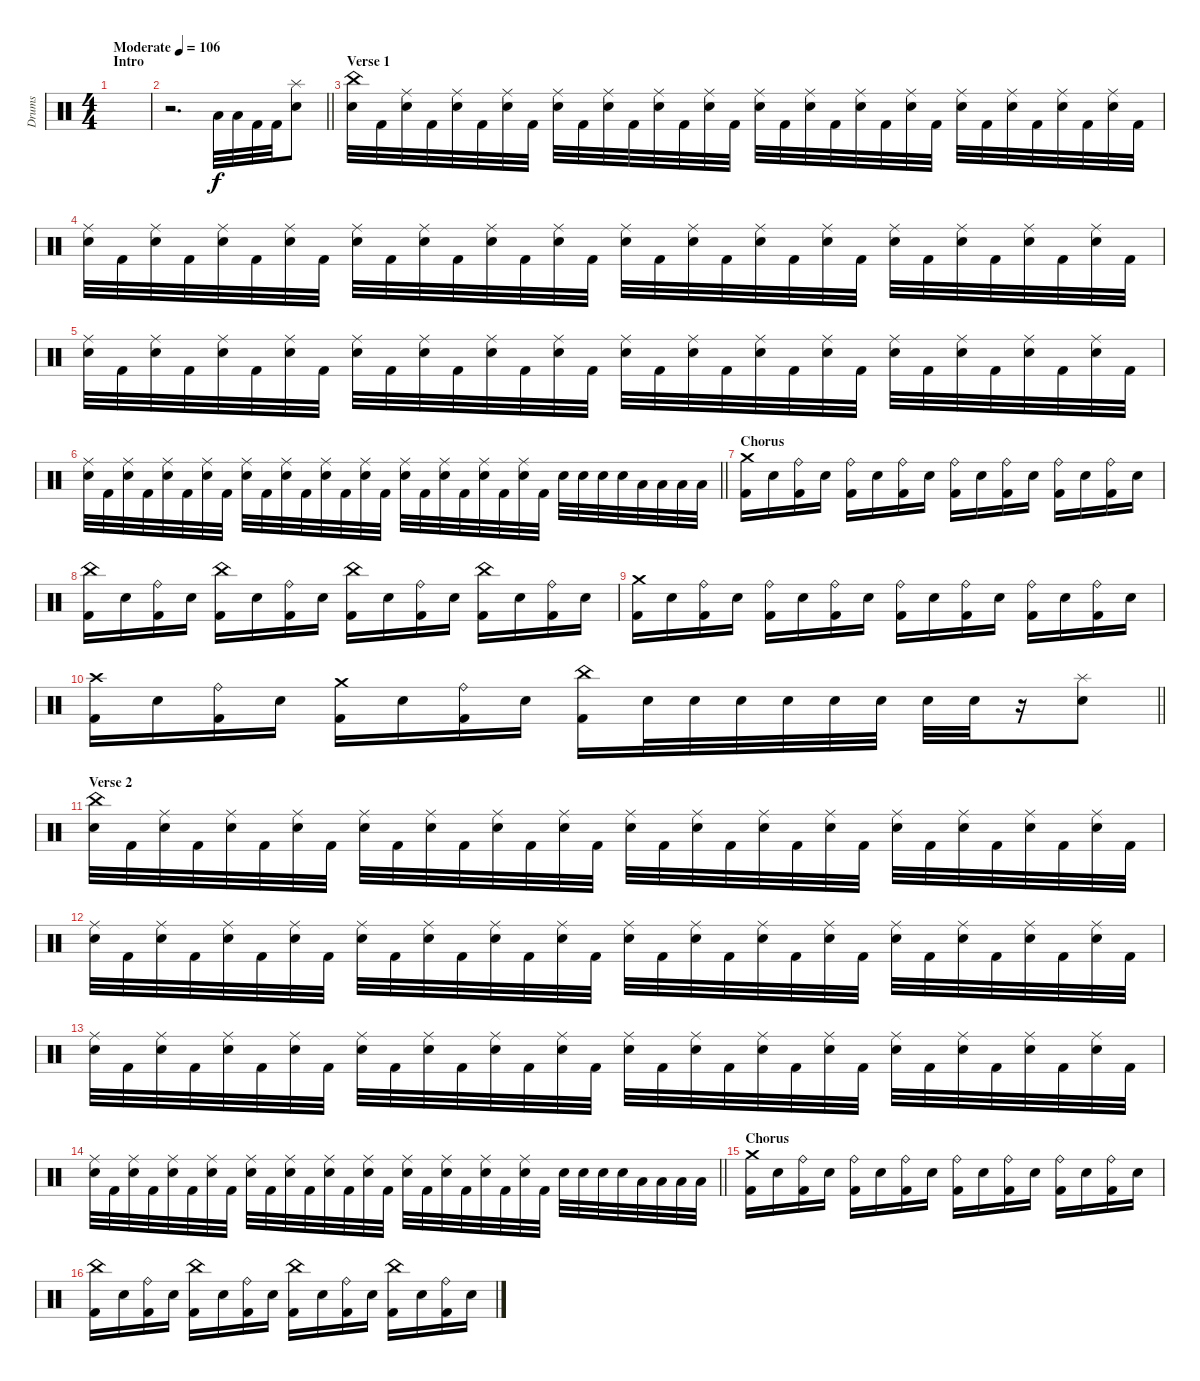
\track ("Drums" "Drums") {instrument percussion}
\staff {score}
\articulation defaults
\ts (4 4)
\section ("" "Intro")
\tempo (106 "Moderate")
\clef neutral
\ks c
|
\barLineRight lightlight
r.2{d} "Low Floor Tom (hit)".32 "Low Floor Tom (hit)".32 "Kick (hit) 2".32 "Kick (hit) 2".32 ("Splash (hit)" "Electric Snare (hit)").8 |
\section ("" "Verse 1")
("China (hit)" "Electric Snare (hit)").32 "Kick (hit) 2".32 ("Ride (middle)" "Electric Snare (hit)").32 "Kick (hit) 2".32 ("Ride (middle)" "Electric Snare (hit)").32 "Kick (hit) 2".32 ("Ride (middle)" "Electric Snare (hit)").32 "Kick (hit) 2".32 ("Ride (middle)" "Electric Snare (hit)").32 "Kick (hit) 2".32 ("Ride (middle)" "Electric Snare (hit)").32 "Kick (hit) 2".32 ("Ride (middle)" "Electric Snare (hit)").32 "Kick (hit) 2".32 ("Ride (middle)" "Electric Snare (hit)").32 "Kick (hit) 2".32 ("Ride (middle)" "Electric Snare (hit)").32 "Kick (hit) 2".32 ("Ride (middle)" "Electric Snare (hit)").32 "Kick (hit) 2".32 ("Ride (middle)" "Electric Snare (hit)").32 "Kick (hit) 2".32 ("Ride (middle)" "Electric Snare (hit)").32 "Kick (hit) 2".32 ("Ride (middle)" "Electric Snare (hit)").32 "Kick (hit) 2".32 ("Ride (middle)" "Electric Snare (hit)").32 "Kick (hit) 2".32 ("Ride (middle)" "Electric Snare (hit)").32 "Kick (hit) 2".32 ("Ride (middle)" "Electric Snare (hit)").32 "Kick (hit) 2".32 |
("Ride (middle)" "Electric Snare (hit)").32 "Kick (hit) 2".32 ("Ride (middle)" "Electric Snare (hit)").32 "Kick (hit) 2".32 ("Ride (middle)" "Electric Snare (hit)").32 "Kick (hit) 2".32 ("Ride (middle)" "Electric Snare (hit)").32 "Kick (hit) 2".32 ("Ride (middle)" "Electric Snare (hit)").32 "Kick (hit) 2".32 ("Ride (middle)" "Electric Snare (hit)").32 "Kick (hit) 2".32 ("Ride (middle)" "Electric Snare (hit)").32 "Kick (hit) 2".32 ("Ride (middle)" "Electric Snare (hit)").32 "Kick (hit) 2".32 ("Ride (middle)" "Electric Snare (hit)").32 "Kick (hit) 2".32 ("Ride (middle)" "Electric Snare (hit)").32 "Kick (hit) 2".32 ("Ride (middle)" "Electric Snare (hit)").32 "Kick (hit) 2".32 ("Ride (middle)" "Electric Snare (hit)").32 "Kick (hit) 2".32 ("Ride (middle)" "Electric Snare (hit)").32 "Kick (hit) 2".32 ("Ride (middle)" "Electric Snare (hit)").32 "Kick (hit) 2".32 ("Ride (middle)" "Electric Snare (hit)").32 "Kick (hit) 2".32 ("Ride (middle)" "Electric Snare (hit)").32 "Kick (hit) 2".32 |
("Ride (middle)" "Electric Snare (hit)").32 "Kick (hit) 2".32 ("Ride (middle)" "Electric Snare (hit)").32 "Kick (hit) 2".32 ("Ride (middle)" "Electric Snare (hit)").32 "Kick (hit) 2".32 ("Ride (middle)" "Electric Snare (hit)").32 "Kick (hit) 2".32 ("Ride (middle)" "Electric Snare (hit)").32 "Kick (hit) 2".32 ("Ride (middle)" "Electric Snare (hit)").32 "Kick (hit) 2".32 ("Ride (middle)" "Electric Snare (hit)").32 "Kick (hit) 2".32 ("Ride (middle)" "Electric Snare (hit)").32 "Kick (hit) 2".32 ("Ride (middle)" "Electric Snare (hit)").32 "Kick (hit) 2".32 ("Ride (middle)" "Electric Snare (hit)").32 "Kick (hit) 2".32 ("Ride (middle)" "Electric Snare (hit)").32 "Kick (hit) 2".32 ("Ride (middle)" "Electric Snare (hit)").32 "Kick (hit) 2".32 ("Ride (middle)" "Electric Snare (hit)").32 "Kick (hit) 2".32 ("Ride (middle)" "Electric Snare (hit)").32 "Kick (hit) 2".32 ("Ride (middle)" "Electric Snare (hit)").32 "Kick (hit) 2".32 ("Ride (middle)" "Electric Snare (hit)").32 "Kick (hit) 2".32 |
\barLineRight lightlight
("Ride (middle)" "Electric Snare (hit)").32 "Kick (hit) 2".32 ("Ride (middle)" "Electric Snare (hit)").32 "Kick (hit) 2".32 ("Ride (middle)" "Electric Snare (hit)").32 "Kick (hit) 2".32 ("Ride (middle)" "Electric Snare (hit)").32 "Kick (hit) 2".32 ("Ride (middle)" "Electric Snare (hit)").32 "Kick (hit) 2".32 ("Ride (middle)" "Electric Snare (hit)").32 "Kick (hit) 2".32 ("Ride (middle)" "Electric Snare (hit)").32 "Kick (hit) 2".32 ("Ride (middle)" "Electric Snare (hit)").32 "Kick (hit) 2".32 ("Ride (middle)" "Electric Snare (hit)").32 "Kick (hit) 2".32 ("Ride (middle)" "Electric Snare (hit)").32 "Kick (hit) 2".32 ("Ride (middle)" "Electric Snare (hit)").32 "Kick (hit) 2".32 ("Ride (middle)" "Electric Snare (hit)").32 "Kick (hit) 2".32 "Electric Snare (hit)".32 "Electric Snare (hit)".32 "Electric Snare (hit)".32 "Electric Snare (hit)".32 "Low Tom (hit)".32 "Low Tom (hit)".32 "Low Floor Tom (hit)".32 "Low Floor Tom (hit)".32 |
\section ("" "Chorus")
("Crash medium (hit)" "Kick (hit) 2").16 "Electric Snare (hit)".16 ("Ride (bell)" "Kick (hit) 2").16 "Electric Snare (hit)".16 ("Ride (bell)" "Kick (hit) 2").16 "Electric Snare (hit)".16 ("Ride (bell)" "Kick (hit) 2").16 "Electric Snare (hit)".16 ("Ride (bell)" "Kick (hit) 2").16 "Electric Snare (hit)".16 ("Ride (bell)" "Kick (hit) 2").16 "Electric Snare (hit)".16 ("Ride (bell)" "Kick (hit) 2").16 "Electric Snare (hit)".16 ("Ride (bell)" "Kick (hit) 2").16 "Electric Snare (hit)".16 |
("China (hit)" "Kick (hit) 2").16 "Electric Snare (hit)".16 ("Ride (bell)" "Kick (hit) 2").16 "Electric Snare (hit)".16 ("China (hit)" "Kick (hit) 2").16 "Electric Snare (hit)".16 ("Ride (bell)" "Kick (hit) 2").16 "Electric Snare (hit)".16 ("China (hit)" "Kick (hit) 2").16 "Electric Snare (hit)".16 ("Ride (bell)" "Kick (hit) 2").16 "Electric Snare (hit)".16 ("China (hit)" "Kick (hit) 2").16 "Electric Snare (hit)".16 ("Ride (bell)" "Kick (hit) 2").16 "Electric Snare (hit)".16 |
("Crash medium (hit)" "Kick (hit) 2").16 "Electric Snare (hit)".16 ("Ride (bell)" "Kick (hit) 2").16 "Electric Snare (hit)".16 ("Ride (bell)" "Kick (hit) 2").16 "Electric Snare (hit)".16 ("Ride (bell)" "Kick (hit) 2").16 "Electric Snare (hit)".16 ("Ride (bell)" "Kick (hit) 2").16 "Electric Snare (hit)".16 ("Ride (bell)" "Kick (hit) 2").16 "Electric Snare (hit)".16 ("Ride (bell)" "Kick (hit) 2").16 "Electric Snare (hit)".16 ("Ride (bell)" "Kick (hit) 2").16 "Electric Snare (hit)".16 |
\barLineRight lightlight
("Crash high (hit)" "Kick (hit) 2").16 "Electric Snare (hit)".16 ("Ride (bell)" "Kick (hit) 2").16 "Electric Snare (hit)".16 ("Crash medium (hit)" "Kick (hit) 2").16 "Electric Snare (hit)".16 ("Ride (bell)" "Kick (hit) 2").16 "Electric Snare (hit)".16 ("China (hit)" "Kick (hit) 2").16 "Electric Snare (hit)".32 "Electric Snare (hit)".32 "Electric Snare (hit)".32 "Electric Snare (hit)".32 "Electric Snare (hit)".32 "Electric Snare (hit)".32 "Electric Snare (hit)".32 "Electric Snare (hit)".32 r.16 ("Splash (hit)" "Electric Snare (hit)").8 |
\section ("" "Verse 2")
("China (hit)" "Electric Snare (hit)").32 "Kick (hit) 2".32 ("Ride (middle)" "Electric Snare (hit)").32 "Kick (hit) 2".32 ("Ride (middle)" "Electric Snare (hit)").32 "Kick (hit) 2".32 ("Ride (middle)" "Electric Snare (hit)").32 "Kick (hit) 2".32 ("Ride (middle)" "Electric Snare (hit)").32 "Kick (hit) 2".32 ("Ride (middle)" "Electric Snare (hit)").32 "Kick (hit) 2".32 ("Ride (middle)" "Electric Snare (hit)").32 "Kick (hit) 2".32 ("Ride (middle)" "Electric Snare (hit)").32 "Kick (hit) 2".32 ("Ride (middle)" "Electric Snare (hit)").32 "Kick (hit) 2".32 ("Ride (middle)" "Electric Snare (hit)").32 "Kick (hit) 2".32 ("Ride (middle)" "Electric Snare (hit)").32 "Kick (hit) 2".32 ("Ride (middle)" "Electric Snare (hit)").32 "Kick (hit) 2".32 ("Ride (middle)" "Electric Snare (hit)").32 "Kick (hit) 2".32 ("Ride (middle)" "Electric Snare (hit)").32 "Kick (hit) 2".32 ("Ride (middle)" "Electric Snare (hit)").32 "Kick (hit) 2".32 ("Ride (middle)" "Electric Snare (hit)").32 "Kick (hit) 2".32 |
("Ride (middle)" "Electric Snare (hit)").32 "Kick (hit) 2".32 ("Ride (middle)" "Electric Snare (hit)").32 "Kick (hit) 2".32 ("Ride (middle)" "Electric Snare (hit)").32 "Kick (hit) 2".32 ("Ride (middle)" "Electric Snare (hit)").32 "Kick (hit) 2".32 ("Ride (middle)" "Electric Snare (hit)").32 "Kick (hit) 2".32 ("Ride (middle)" "Electric Snare (hit)").32 "Kick (hit) 2".32 ("Ride (middle)" "Electric Snare (hit)").32 "Kick (hit) 2".32 ("Ride (middle)" "Electric Snare (hit)").32 "Kick (hit) 2".32 ("Ride (middle)" "Electric Snare (hit)").32 "Kick (hit) 2".32 ("Ride (middle)" "Electric Snare (hit)").32 "Kick (hit) 2".32 ("Ride (middle)" "Electric Snare (hit)").32 "Kick (hit) 2".32 ("Ride (middle)" "Electric Snare (hit)").32 "Kick (hit) 2".32 ("Ride (middle)" "Electric Snare (hit)").32 "Kick (hit) 2".32 ("Ride (middle)" "Electric Snare (hit)").32 "Kick (hit) 2".32 ("Ride (middle)" "Electric Snare (hit)").32 "Kick (hit) 2".32 ("Ride (middle)" "Electric Snare (hit)").32 "Kick (hit) 2".32 |
("Ride (middle)" "Electric Snare (hit)").32 "Kick (hit) 2".32 ("Ride (middle)" "Electric Snare (hit)").32 "Kick (hit) 2".32 ("Ride (middle)" "Electric Snare (hit)").32 "Kick (hit) 2".32 ("Ride (middle)" "Electric Snare (hit)").32 "Kick (hit) 2".32 ("Ride (middle)" "Electric Snare (hit)").32 "Kick (hit) 2".32 ("Ride (middle)" "Electric Snare (hit)").32 "Kick (hit) 2".32 ("Ride (middle)" "Electric Snare (hit)").32 "Kick (hit) 2".32 ("Ride (middle)" "Electric Snare (hit)").32 "Kick (hit) 2".32 ("Ride (middle)" "Electric Snare (hit)").32 "Kick (hit) 2".32 ("Ride (middle)" "Electric Snare (hit)").32 "Kick (hit) 2".32 ("Ride (middle)" "Electric Snare (hit)").32 "Kick (hit) 2".32 ("Ride (middle)" "Electric Snare (hit)").32 "Kick (hit) 2".32 ("Ride (middle)" "Electric Snare (hit)").32 "Kick (hit) 2".32 ("Ride (middle)" "Electric Snare (hit)").32 "Kick (hit) 2".32 ("Ride (middle)" "Electric Snare (hit)").32 "Kick (hit) 2".32 ("Ride (middle)" "Electric Snare (hit)").32 "Kick (hit) 2".32 |
\barLineRight lightlight
("Ride (middle)" "Electric Snare (hit)").32 "Kick (hit) 2".32 ("Ride (middle)" "Electric Snare (hit)").32 "Kick (hit) 2".32 ("Ride (middle)" "Electric Snare (hit)").32 "Kick (hit) 2".32 ("Ride (middle)" "Electric Snare (hit)").32 "Kick (hit) 2".32 ("Ride (middle)" "Electric Snare (hit)").32 "Kick (hit) 2".32 ("Ride (middle)" "Electric Snare (hit)").32 "Kick (hit) 2".32 ("Ride (middle)" "Electric Snare (hit)").32 "Kick (hit) 2".32 ("Ride (middle)" "Electric Snare (hit)").32 "Kick (hit) 2".32 ("Ride (middle)" "Electric Snare (hit)").32 "Kick (hit) 2".32 ("Ride (middle)" "Electric Snare (hit)").32 "Kick (hit) 2".32 ("Ride (middle)" "Electric Snare (hit)").32 "Kick (hit) 2".32 ("Ride (middle)" "Electric Snare (hit)").32 "Kick (hit) 2".32 "Electric Snare (hit)".32 "Electric Snare (hit)".32 "Electric Snare (hit)".32 "Electric Snare (hit)".32 "Low Tom (hit)".32 "Low Tom (hit)".32 "Low Floor Tom (hit)".32 "Low Floor Tom (hit)".32 |
\section ("" "Chorus")
("Crash medium (hit)" "Kick (hit) 2").16 "Electric Snare (hit)".16 ("Ride (bell)" "Kick (hit) 2").16 "Electric Snare (hit)".16 ("Ride (bell)" "Kick (hit) 2").16 "Electric Snare (hit)".16 ("Ride (bell)" "Kick (hit) 2").16 "Electric Snare (hit)".16 ("Ride (bell)" "Kick (hit) 2").16 "Electric Snare (hit)".16 ("Ride (bell)" "Kick (hit) 2").16 "Electric Snare (hit)".16 ("Ride (bell)" "Kick (hit) 2").16 "Electric Snare (hit)".16 ("Ride (bell)" "Kick (hit) 2").16 "Electric Snare (hit)".16 |
("China (hit)" "Kick (hit) 2").16 "Electric Snare (hit)".16 ("Ride (bell)" "Kick (hit) 2").16 "Electric Snare (hit)".16 ("China (hit)" "Kick (hit) 2").16 "Electric Snare (hit)".16 ("Ride (bell)" "Kick (hit) 2").16 "Electric Snare (hit)".16 ("China (hit)" "Kick (hit) 2").16 "Electric Snare (hit)".16 ("Ride (bell)" "Kick (hit) 2").16 "Electric Snare (hit)".16 ("China (hit)" "Kick (hit) 2").16 "Electric Snare (hit)".16 ("Ride (bell)" "Kick (hit) 2").16 "Electric Snare (hit)".16
